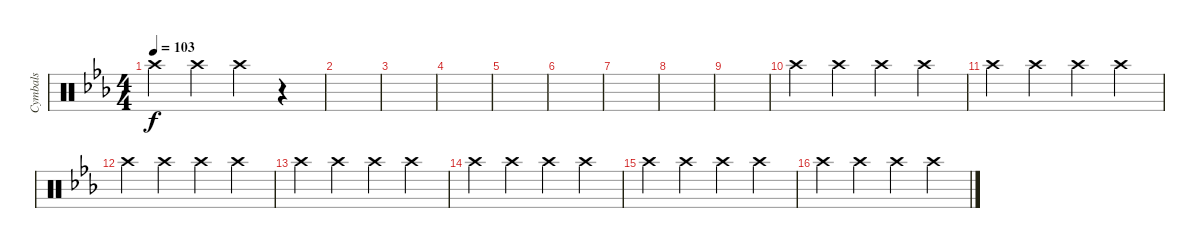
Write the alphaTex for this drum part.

\track ("Cymbals" "Cymbals") {instrument percussion}
\staff {score}
\articulation defaults
\ts (4 4)
\tempo 103
\clef neutral
\ks cminor "Crash high (hit)".4{dy f} "Crash high (hit)".4 "Crash high (hit)".4
r.4 |
|
|
|
|
|
|
|
|
"Crash high (hit)".4 "Crash high (hit)".4 "Crash high (hit)".4 "Crash high (hit)".4 |
"Crash high (hit)".4 "Crash high (hit)".4 "Crash high (hit)".4 "Crash high (hit)".4 |
"Crash high (hit)".4 "Crash high (hit)".4 "Crash high (hit)".4 "Crash high (hit)".4 |
"Crash high (hit)".4 "Crash high (hit)".4 "Crash high (hit)".4 "Crash high (hit)".4 |
"Crash high (hit)".4 "Crash high (hit)".4 "Crash high (hit)".4 "Crash high (hit)".4 |
"Crash high (hit)".4 "Crash high (hit)".4 "Crash high (hit)".4 "Crash high (hit)".4 |
"Crash high (hit)".4 "Crash high (hit)".4 "Crash high (hit)".4 "Crash high (hit)".4
